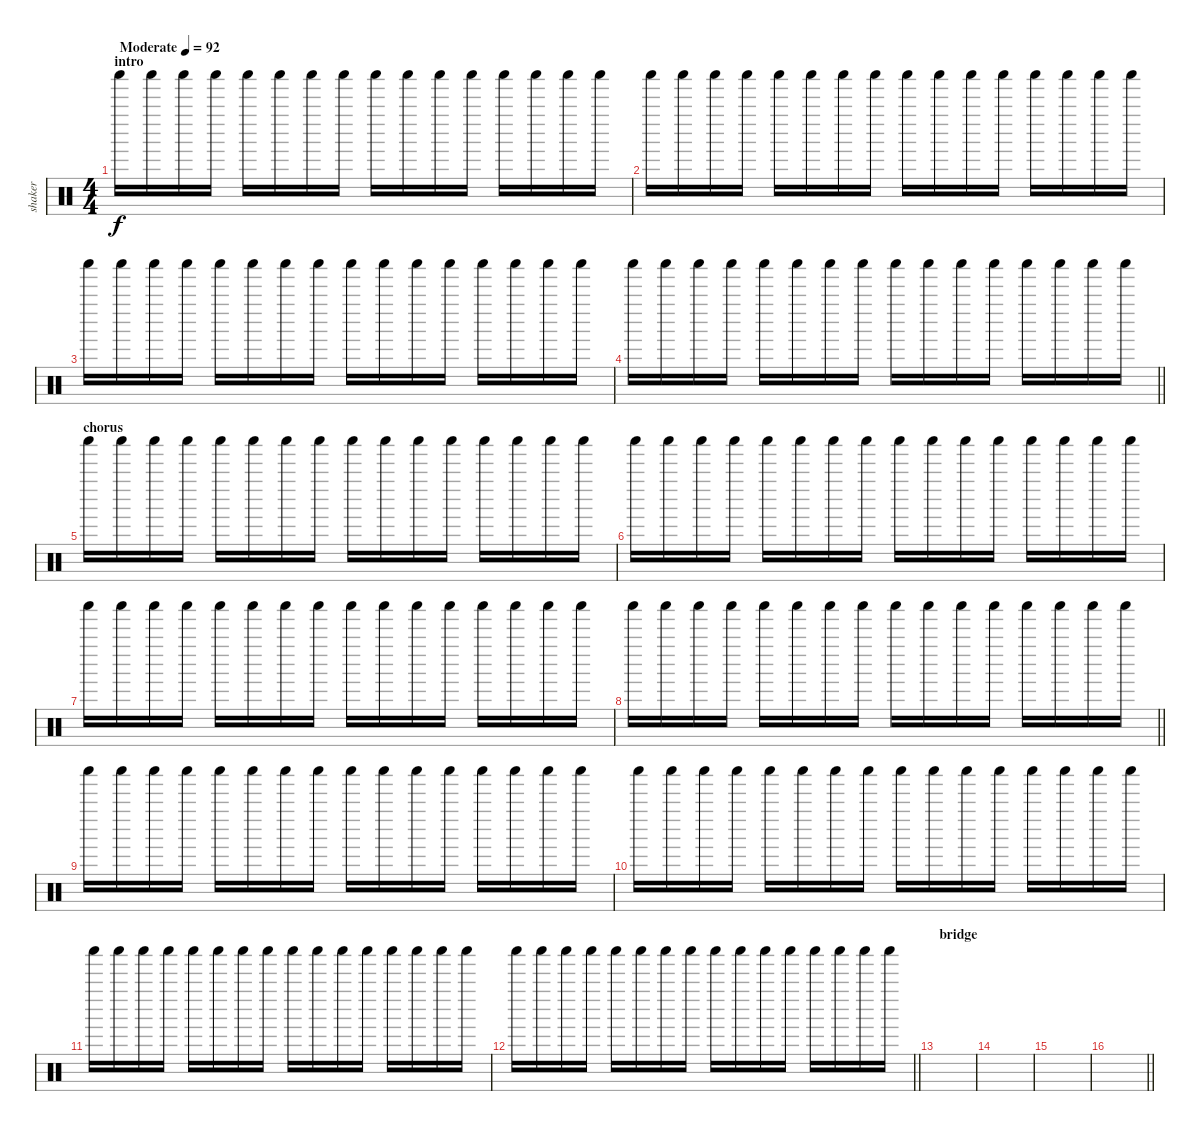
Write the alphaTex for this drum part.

\track ("shaker" "shaker") {instrument percussion}
\staff {score}
\articulation defaults
\ts (4 4)
\section ("" "intro")
\tempo (92 "Moderate")
\clef neutral
\ks c "Shaker (hit)".16{dy f} "Shaker (hit)".16 "Shaker (hit)".16 "Shaker (hit)".16 "Shaker (hit)".16 "Shaker (hit)".16 "Shaker (hit)".16 "Shaker (hit)".16 "Shaker (hit)".16 "Shaker (hit)".16 "Shaker (hit)".16 "Shaker (hit)".16 "Shaker (hit)".16 "Shaker (hit)".16 "Shaker (hit)".16 "Shaker (hit)".16
|
"Shaker (hit)".16 "Shaker (hit)".16 "Shaker (hit)".16 "Shaker (hit)".16 "Shaker (hit)".16 "Shaker (hit)".16 "Shaker (hit)".16 "Shaker (hit)".16 "Shaker (hit)".16 "Shaker (hit)".16 "Shaker (hit)".16 "Shaker (hit)".16 "Shaker (hit)".16 "Shaker (hit)".16 "Shaker (hit)".16 "Shaker (hit)".16 |
"Shaker (hit)".16 "Shaker (hit)".16 "Shaker (hit)".16 "Shaker (hit)".16 "Shaker (hit)".16 "Shaker (hit)".16 "Shaker (hit)".16 "Shaker (hit)".16 "Shaker (hit)".16 "Shaker (hit)".16 "Shaker (hit)".16 "Shaker (hit)".16 "Shaker (hit)".16 "Shaker (hit)".16 "Shaker (hit)".16 "Shaker (hit)".16 |
\barLineRight lightlight "Shaker (hit)".16 "Shaker (hit)".16 "Shaker (hit)".16 "Shaker (hit)".16 "Shaker (hit)".16 "Shaker (hit)".16 "Shaker (hit)".16 "Shaker (hit)".16 "Shaker (hit)".16 "Shaker (hit)".16 "Shaker (hit)".16 "Shaker (hit)".16 "Shaker (hit)".16 "Shaker (hit)".16 "Shaker (hit)".16 "Shaker (hit)".16
|
\section ("" "chorus")
"Shaker (hit)".16 "Shaker (hit)".16 "Shaker (hit)".16 "Shaker (hit)".16 "Shaker (hit)".16 "Shaker (hit)".16 "Shaker (hit)".16 "Shaker (hit)".16 "Shaker (hit)".16 "Shaker (hit)".16 "Shaker (hit)".16 "Shaker (hit)".16 "Shaker (hit)".16 "Shaker (hit)".16 "Shaker (hit)".16 "Shaker (hit)".16 |
"Shaker (hit)".16 "Shaker (hit)".16 "Shaker (hit)".16 "Shaker (hit)".16 "Shaker (hit)".16 "Shaker (hit)".16 "Shaker (hit)".16 "Shaker (hit)".16 "Shaker (hit)".16 "Shaker (hit)".16 "Shaker (hit)".16 "Shaker (hit)".16 "Shaker (hit)".16 "Shaker (hit)".16 "Shaker (hit)".16 "Shaker (hit)".16 |
"Shaker (hit)".16 "Shaker (hit)".16 "Shaker (hit)".16 "Shaker (hit)".16 "Shaker (hit)".16 "Shaker (hit)".16 "Shaker (hit)".16 "Shaker (hit)".16 "Shaker (hit)".16 "Shaker (hit)".16 "Shaker (hit)".16 "Shaker (hit)".16 "Shaker (hit)".16 "Shaker (hit)".16 "Shaker (hit)".16 "Shaker (hit)".16 |
\barLineRight lightlight "Shaker (hit)".16 "Shaker (hit)".16 "Shaker (hit)".16 "Shaker (hit)".16 "Shaker (hit)".16 "Shaker (hit)".16 "Shaker (hit)".16 "Shaker (hit)".16 "Shaker (hit)".16 "Shaker (hit)".16 "Shaker (hit)".16 "Shaker (hit)".16 "Shaker (hit)".16 "Shaker (hit)".16 "Shaker (hit)".16 "Shaker (hit)".16
|
"Shaker (hit)".16 "Shaker (hit)".16 "Shaker (hit)".16 "Shaker (hit)".16 "Shaker (hit)".16 "Shaker (hit)".16 "Shaker (hit)".16 "Shaker (hit)".16 "Shaker (hit)".16 "Shaker (hit)".16 "Shaker (hit)".16 "Shaker (hit)".16 "Shaker (hit)".16 "Shaker (hit)".16 "Shaker (hit)".16 "Shaker (hit)".16 |
"Shaker (hit)".16 "Shaker (hit)".16 "Shaker (hit)".16 "Shaker (hit)".16 "Shaker (hit)".16 "Shaker (hit)".16 "Shaker (hit)".16 "Shaker (hit)".16 "Shaker (hit)".16 "Shaker (hit)".16 "Shaker (hit)".16 "Shaker (hit)".16 "Shaker (hit)".16 "Shaker (hit)".16 "Shaker (hit)".16 "Shaker (hit)".16 |
"Shaker (hit)".16 "Shaker (hit)".16 "Shaker (hit)".16 "Shaker (hit)".16 "Shaker (hit)".16 "Shaker (hit)".16 "Shaker (hit)".16 "Shaker (hit)".16 "Shaker (hit)".16 "Shaker (hit)".16 "Shaker (hit)".16 "Shaker (hit)".16 "Shaker (hit)".16 "Shaker (hit)".16 "Shaker (hit)".16 "Shaker (hit)".16 |
\barLineRight lightlight "Shaker (hit)".16 "Shaker (hit)".16 "Shaker (hit)".16 "Shaker (hit)".16 "Shaker (hit)".16 "Shaker (hit)".16 "Shaker (hit)".16 "Shaker (hit)".16 "Shaker (hit)".16 "Shaker (hit)".16 "Shaker (hit)".16 "Shaker (hit)".16 "Shaker (hit)".16 "Shaker (hit)".16 "Shaker (hit)".16 "Shaker (hit)".16
|
\section ("" "bridge")
|
|
|
\barLineRight lightlight
